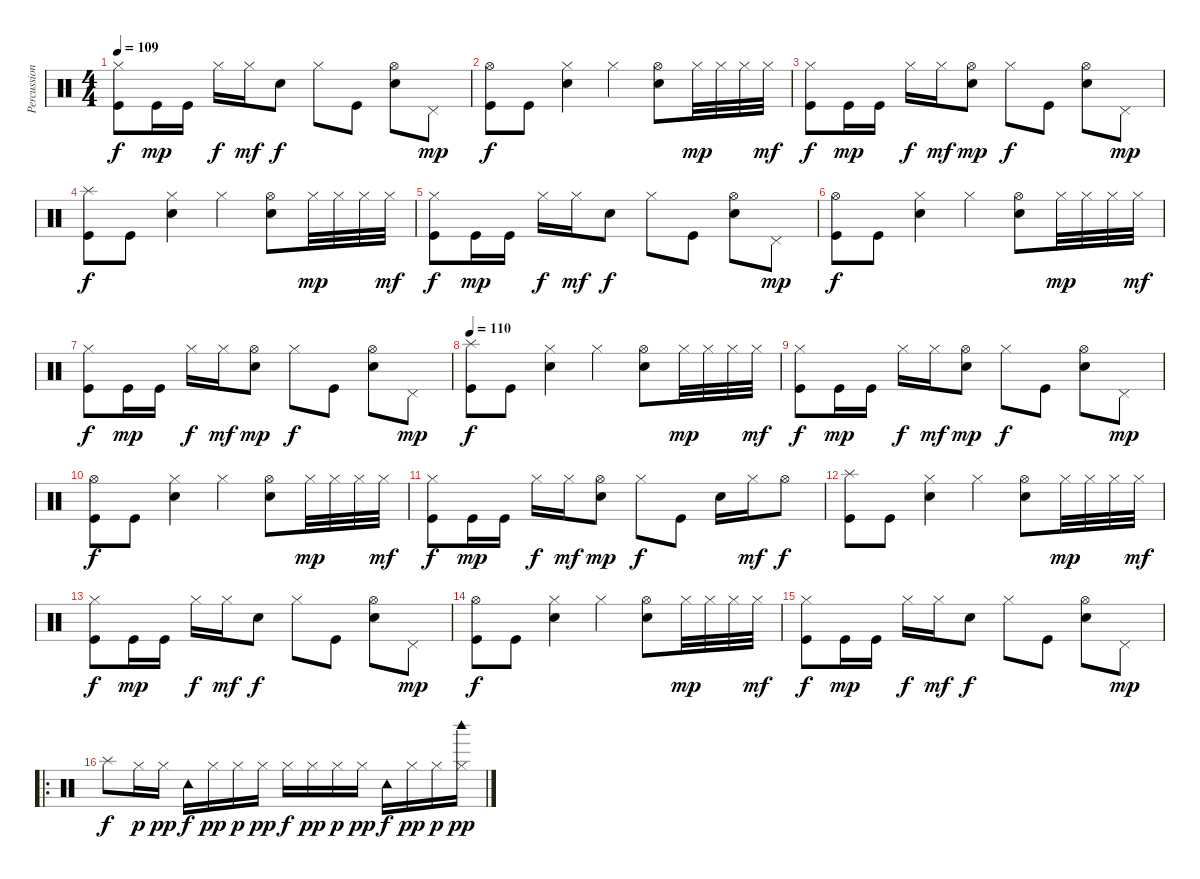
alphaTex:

\track ("Percussioni" "Percussion") {instrument percussion}
\staff {score}
\articulation defaults
\ts (4 4)
\tempo 109
\clef neutral
\ks c
("Hi-Hat (closed)" "Kick (hit)").8{dy f} "Kick (hit)".16{dy mp} "Kick (hit)".16 "Hi-Hat (closed)".16{dy f} "Hi-Hat (closed)".16{dy mf} "Snare (hit) 2".8{dy f} "Hi-Hat (closed)".8 "Kick (hit)".8 ("Hi-Hat (open)" "Snare (hit) 2").8 "Pedal Hi-Hat (hit)".8{dy mp} |
("Hi-Hat (open)" "Kick (hit)").8{dy f} "Kick (hit)".8 ("Hi-Hat (closed)" "Snare (hit) 2").4 "Hi-Hat (closed)".4 ("Hi-Hat (open)" "Snare (hit) 2").8 "Hi-Hat (closed)".32{dy mp} "Hi-Hat (closed)".32 "Hi-Hat (closed)".32 "Hi-Hat (closed)".32{dy mf} |
("Hi-Hat (closed)" "Kick (hit)").8{dy f} "Kick (hit)".16{dy mp} "Kick (hit)".16 "Hi-Hat (closed)".16{dy f} "Hi-Hat (closed)".16{dy mf} ("Hi-Hat (open)" "Snare (hit) 2").8{dy mp} "Hi-Hat (closed)".8{dy f} "Kick (hit)".8 ("Hi-Hat (open)" "Snare (hit) 2").8 "Pedal Hi-Hat (hit)".8{dy mp} |
("Splash (hit)" "Kick (hit)").8{dy f} "Kick (hit)".8 ("Hi-Hat (closed)" "Snare (hit) 2").4 "Hi-Hat (closed)".4 ("Hi-Hat (open)" "Snare (hit) 2").8 "Hi-Hat (closed)".32{dy mp} "Hi-Hat (closed)".32 "Hi-Hat (closed)".32 "Hi-Hat (closed)".32{dy mf} |
("Hi-Hat (closed)" "Kick (hit)").8{dy f} "Kick (hit)".16{dy mp} "Kick (hit)".16 "Hi-Hat (closed)".16{dy f} "Hi-Hat (closed)".16{dy mf} "Snare (hit) 2".8{dy f} "Hi-Hat (closed)".8 "Kick (hit)".8 ("Hi-Hat (open)" "Snare (hit) 2").8 "Pedal Hi-Hat (hit)".8{dy mp} |
("Hi-Hat (open)" "Kick (hit)").8{dy f} "Kick (hit)".8 ("Hi-Hat (closed)" "Snare (hit) 2").4 "Hi-Hat (closed)".4 ("Hi-Hat (open)" "Snare (hit) 2").8 "Hi-Hat (closed)".32{dy mp} "Hi-Hat (closed)".32 "Hi-Hat (closed)".32 "Hi-Hat (closed)".32{dy mf} |
("Hi-Hat (closed)" "Kick (hit)").8{dy f} "Kick (hit)".16{dy mp} "Kick (hit)".16 "Hi-Hat (closed)".16{dy f} "Hi-Hat (closed)".16{dy mf} ("Hi-Hat (open)" "Snare (hit) 2").8{dy mp} "Hi-Hat (closed)".8{dy f} "Kick (hit)".8 ("Hi-Hat (open)" "Snare (hit) 2").8 "Pedal Hi-Hat (hit)".8{dy mp} |
\tempo 110
("Splash (hit)" "Kick (hit)").8{dy f} "Kick (hit)".8 ("Hi-Hat (closed)" "Snare (hit) 2").4 "Hi-Hat (closed)".4 ("Hi-Hat (open)" "Snare (hit) 2").8 "Hi-Hat (closed)".32{dy mp} "Hi-Hat (closed)".32 "Hi-Hat (closed)".32 "Hi-Hat (closed)".32{dy mf} |
("Hi-Hat (closed)" "Kick (hit)").8{dy f} "Kick (hit)".16{dy mp} "Kick (hit)".16 "Hi-Hat (closed)".16{dy f} "Hi-Hat (closed)".16{dy mf} ("Hi-Hat (open)" "Snare (hit) 2").8{dy mp} "Hi-Hat (closed)".8{dy f} "Kick (hit)".8 ("Hi-Hat (open)" "Snare (hit) 2").8 "Pedal Hi-Hat (hit)".8{dy mp} |
("Hi-Hat (open)" "Kick (hit)").8{dy f} "Kick (hit)".8 ("Hi-Hat (closed)" "Snare (hit) 2").4 "Hi-Hat (closed)".4 ("Hi-Hat (open)" "Snare (hit) 2").8 "Hi-Hat (closed)".32{dy mp} "Hi-Hat (closed)".32 "Hi-Hat (closed)".32 "Hi-Hat (closed)".32{dy mf} |
("Hi-Hat (closed)" "Kick (hit)").8{dy f} "Kick (hit)".16{dy mp} "Kick (hit)".16 "Hi-Hat (closed)".16{dy f} "Hi-Hat (closed)".16{dy mf} ("Hi-Hat (open)" "Snare (hit) 2").8{dy mp} "Hi-Hat (closed)".8{dy f} "Kick (hit)".8 "Snare (hit) 2".16 "Hi-Hat (closed)".16{dy mf} "Hi-Hat (open)".8{dy f} |
("Splash (hit)" "Kick (hit)").8 "Kick (hit)".8 ("Hi-Hat (closed)" "Snare (hit) 2").4 "Hi-Hat (closed)".4 ("Hi-Hat (open)" "Snare (hit) 2").8 "Hi-Hat (closed)".32{dy mp} "Hi-Hat (closed)".32 "Hi-Hat (closed)".32 "Hi-Hat (closed)".32{dy mf} |
("Hi-Hat (closed)" "Kick (hit)").8{dy f} "Kick (hit)".16{dy mp} "Kick (hit)".16 "Hi-Hat (closed)".16{dy f} "Hi-Hat (closed)".16{dy mf} "Snare (hit) 2".8{dy f} "Hi-Hat (closed)".8 "Kick (hit)".8 ("Hi-Hat (open)" "Snare (hit) 2").8 "Pedal Hi-Hat (hit)".8{dy mp} |
("Hi-Hat (open)" "Kick (hit)").8{dy f} "Kick (hit)".8 ("Hi-Hat (closed)" "Snare (hit) 2").4 "Hi-Hat (closed)".4 ("Hi-Hat (open)" "Snare (hit) 2").8 "Hi-Hat (closed)".32{dy mp} "Hi-Hat (closed)".32 "Hi-Hat (closed)".32 "Hi-Hat (closed)".32{dy mf} |
("Hi-Hat (closed)" "Kick (hit)").8{dy f} "Kick (hit)".16{dy mp} "Kick (hit)".16 "Hi-Hat (closed)".16{dy f} "Hi-Hat (closed)".16{dy mf} "Snare (hit) 2".8{dy f} "Hi-Hat (closed)".8 "Kick (hit)".8 ("Hi-Hat (open)" "Snare (hit) 2").8 "Pedal Hi-Hat (hit)".8{dy mp} |
\ro "Splash (hit)".8{dy f} "Hi-Hat (closed)".16{dy p} "Hi-Hat (closed)".16{dy pp} "Tambourine (hit)".16{dy f} "Hi-Hat (closed)".16{dy pp} "Hi-Hat (closed)".16{dy p} "Hi-Hat (closed)".16{dy pp} "Hi-Hat (closed)".16{dy f} "Hi-Hat (closed)".16{dy pp} "Hi-Hat (closed)".16{dy p} "Hi-Hat (closed)".16{dy pp} "Tambourine (hit)".16{dy f} "Hi-Hat (closed)".16{dy pp} "Hi-Hat (closed)".16{dy p}
("Woodblock high (hit)" "Hi-Hat (closed)").16{dy pp}
